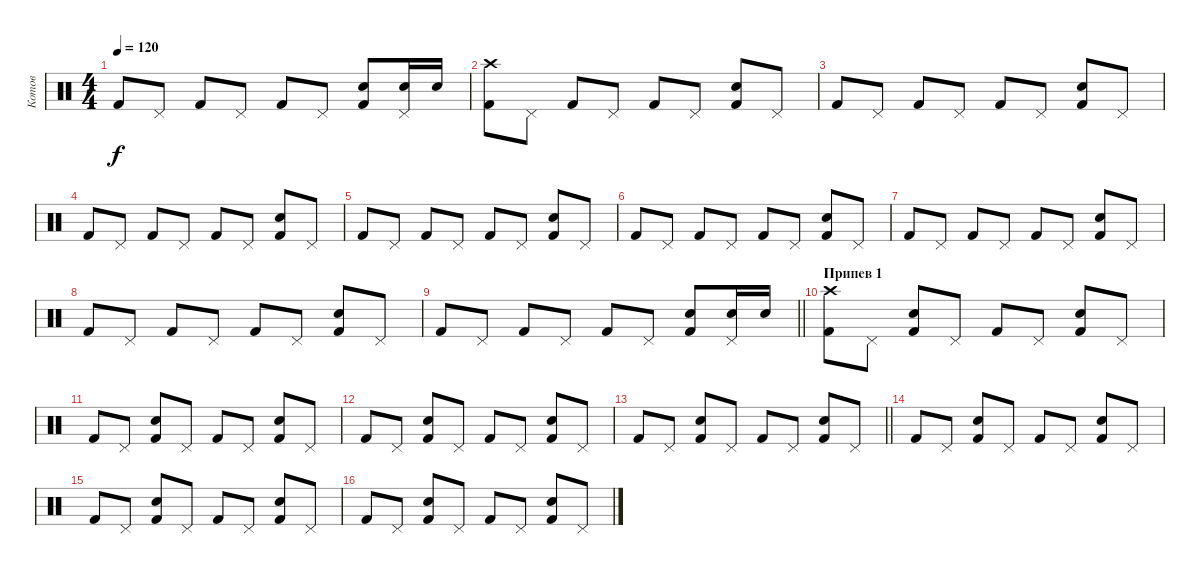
\track ("Котов" "Котов") {instrument percussion}
\staff {score}
\articulation defaults
\ts (4 4)
\tempo 120
\clef neutral
\ks c "Kick (hit) 2".8{dy f} "Pedal Hi-Hat (hit)".8 "Kick (hit) 2".8 "Pedal Hi-Hat (hit)".8 "Kick (hit) 2".8 "Pedal Hi-Hat (hit)".8
("Kick (hit) 2" "Snare (hit) 2").8 ("Pedal Hi-Hat (hit)" "Snare (hit) 2").16 "Snare (hit) 2".16 |
("Kick (hit) 2" "Crash high (hit)").8 "Pedal Hi-Hat (hit)".8 "Kick (hit) 2".8 "Pedal Hi-Hat (hit)".8 "Kick (hit) 2".8 "Pedal Hi-Hat (hit)".8 ("Kick (hit) 2" "Snare (hit) 2").8 "Pedal Hi-Hat (hit)".8 |
"Kick (hit) 2".8 "Pedal Hi-Hat (hit)".8 "Kick (hit) 2".8 "Pedal Hi-Hat (hit)".8 "Kick (hit) 2".8 "Pedal Hi-Hat (hit)".8 ("Kick (hit) 2" "Snare (hit) 2").8 "Pedal Hi-Hat (hit)".8 |
"Kick (hit) 2".8 "Pedal Hi-Hat (hit)".8 "Kick (hit) 2".8 "Pedal Hi-Hat (hit)".8 "Kick (hit) 2".8 "Pedal Hi-Hat (hit)".8 ("Kick (hit) 2" "Snare (hit) 2").8 "Pedal Hi-Hat (hit)".8 |
"Kick (hit) 2".8 "Pedal Hi-Hat (hit)".8 "Kick (hit) 2".8 "Pedal Hi-Hat (hit)".8 "Kick (hit) 2".8 "Pedal Hi-Hat (hit)".8 ("Kick (hit) 2" "Snare (hit) 2").8 "Pedal Hi-Hat (hit)".8 |
"Kick (hit) 2".8 "Pedal Hi-Hat (hit)".8 "Kick (hit) 2".8 "Pedal Hi-Hat (hit)".8 "Kick (hit) 2".8 "Pedal Hi-Hat (hit)".8 ("Kick (hit) 2" "Snare (hit) 2").8 "Pedal Hi-Hat (hit)".8 |
"Kick (hit) 2".8 "Pedal Hi-Hat (hit)".8 "Kick (hit) 2".8 "Pedal Hi-Hat (hit)".8 "Kick (hit) 2".8 "Pedal Hi-Hat (hit)".8 ("Kick (hit) 2" "Snare (hit) 2").8 "Pedal Hi-Hat (hit)".8 |
"Kick (hit) 2".8 "Pedal Hi-Hat (hit)".8 "Kick (hit) 2".8 "Pedal Hi-Hat (hit)".8 "Kick (hit) 2".8 "Pedal Hi-Hat (hit)".8 ("Kick (hit) 2" "Snare (hit) 2").8 "Pedal Hi-Hat (hit)".8 |
\barLineRight lightlight "Kick (hit) 2".8 "Pedal Hi-Hat (hit)".8 "Kick (hit) 2".8 "Pedal Hi-Hat (hit)".8 "Kick (hit) 2".8 "Pedal Hi-Hat (hit)".8
("Kick (hit) 2" "Snare (hit) 2").8 ("Pedal Hi-Hat (hit)" "Snare (hit) 2").16 "Snare (hit) 2".16 |
\section ("" "Припев 1")
("Kick (hit) 2" "Crash high (hit)").8 "Pedal Hi-Hat (hit)".8 ("Kick (hit) 2" "Snare (hit) 2").8 "Pedal Hi-Hat (hit)".8 "Kick (hit) 2".8 "Pedal Hi-Hat (hit)".8 ("Kick (hit) 2" "Snare (hit) 2").8 "Pedal Hi-Hat (hit)".8 |
"Kick (hit) 2".8 "Pedal Hi-Hat (hit)".8 ("Kick (hit) 2" "Snare (hit) 2").8 "Pedal Hi-Hat (hit)".8 "Kick (hit) 2".8 "Pedal Hi-Hat (hit)".8 ("Kick (hit) 2" "Snare (hit) 2").8 "Pedal Hi-Hat (hit)".8 |
"Kick (hit) 2".8 "Pedal Hi-Hat (hit)".8 ("Kick (hit) 2" "Snare (hit) 2").8 "Pedal Hi-Hat (hit)".8 "Kick (hit) 2".8 "Pedal Hi-Hat (hit)".8 ("Kick (hit) 2" "Snare (hit) 2").8 "Pedal Hi-Hat (hit)".8 |
\barLineRight lightlight "Kick (hit) 2".8 "Pedal Hi-Hat (hit)".8
("Kick (hit) 2" "Snare (hit) 2").8 "Pedal Hi-Hat (hit)".8 "Kick (hit) 2".8 "Pedal Hi-Hat (hit)".8 ("Kick (hit) 2" "Snare (hit) 2").8 "Pedal Hi-Hat (hit)".8 |
"Kick (hit) 2".8 "Pedal Hi-Hat (hit)".8 ("Kick (hit) 2" "Snare (hit) 2").8 "Pedal Hi-Hat (hit)".8 "Kick (hit) 2".8 "Pedal Hi-Hat (hit)".8 ("Kick (hit) 2" "Snare (hit) 2").8 "Pedal Hi-Hat (hit)".8 |
"Kick (hit) 2".8 "Pedal Hi-Hat (hit)".8 ("Kick (hit) 2" "Snare (hit) 2").8 "Pedal Hi-Hat (hit)".8 "Kick (hit) 2".8 "Pedal Hi-Hat (hit)".8 ("Kick (hit) 2" "Snare (hit) 2").8 "Pedal Hi-Hat (hit)".8 |
"Kick (hit) 2".8 "Pedal Hi-Hat (hit)".8 ("Kick (hit) 2" "Snare (hit) 2").8 "Pedal Hi-Hat (hit)".8 "Kick (hit) 2".8 "Pedal Hi-Hat (hit)".8 ("Kick (hit) 2" "Snare (hit) 2").8 "Pedal Hi-Hat (hit)".8
